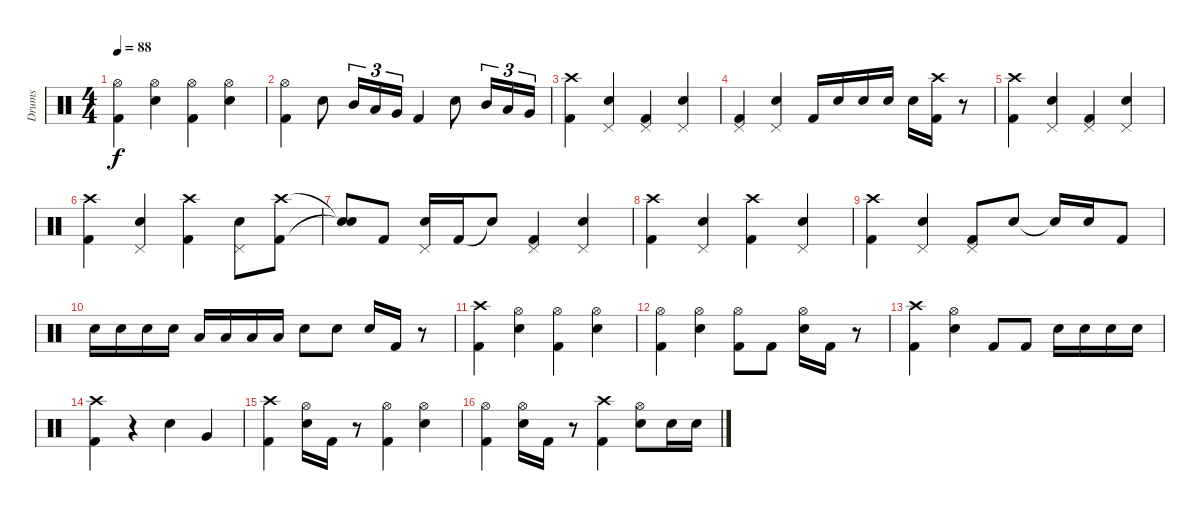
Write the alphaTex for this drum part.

\track ("Drums" "Drums") {instrument percussion}
\staff {score}
\articulation defaults
\ts (4 4)
\tempo 88
\clef neutral
\ks c
("Hi-Hat (open)" "Kick (hit) 2").4{dy f} ("Hi-Hat (open)" "Electric Snare (hit)").4 ("Hi-Hat (open)" "Kick (hit) 2").4 ("Hi-Hat (open)" "Electric Snare (hit)").4 |
("Hi-Hat (open)" "Kick (hit) 2").4 "Electric Snare (hit)".8 "Mid Tom (hit)".16{tu (3 2)} "Low Tom (hit)".16{tu (3 2)} "Very Low Tom (hit)".16{tu (3 2)} "Kick (hit) 2".4 "Electric Snare (hit)".8 "Mid Tom (hit)".16{tu (3 2)} "Low Tom (hit)".16{tu (3 2)} "Very Low Tom (hit)".16{tu (3 2)} |
("Crash high (hit)" "Kick (hit) 2").4 ("Pedal Hi-Hat (hit)" "Electric Snare (hit)").4 ("Pedal Hi-Hat (hit)" "Kick (hit) 2").4 ("Pedal Hi-Hat (hit)" "Electric Snare (hit)").4 |
("Pedal Hi-Hat (hit)" "Kick (hit) 2").4 ("Pedal Hi-Hat (hit)" "Electric Snare (hit)").4 "Kick (hit) 2".16 "Electric Snare (hit)".16 "Electric Snare (hit)".16 "Electric Snare (hit)".16 "Electric Snare (hit)".16 ("Crash high (hit)" "Kick (hit) 2").16 r.8 |
("Crash high (hit)" "Kick (hit) 2").4 ("Pedal Hi-Hat (hit)" "Electric Snare (hit)").4 ("Pedal Hi-Hat (hit)" "Kick (hit) 2").4 ("Pedal Hi-Hat (hit)" "Electric Snare (hit)").4 |
("Crash high (hit)" "Kick (hit) 2").4 ("Pedal Hi-Hat (hit)" "Electric Snare (hit)").4 ("Crash high (hit)" "Kick (hit) 2").4 ("Pedal Hi-Hat (hit)" "Electric Snare (hit)").8 ("Crash high (hit)" "Kick (hit) 2").8 |
("Snare (hit)"{t} "Snare (hit)"{t}).8 "Kick (hit) 2".8 ("Pedal Hi-Hat (hit)" "Electric Snare (hit)").16 "Kick (hit) 2".16 "Snare (hit)"{t}.8 ("Pedal Hi-Hat (hit)" "Kick (hit) 2").4 ("Pedal Hi-Hat (hit)" "Electric Snare (hit)").4 |
("Crash high (hit)" "Kick (hit) 2").4 ("Pedal Hi-Hat (hit)" "Electric Snare (hit)").4 ("Crash high (hit)" "Kick (hit) 2").4 ("Pedal Hi-Hat (hit)" "Electric Snare (hit)").4 |
("Crash high (hit)" "Kick (hit) 2").4 ("Pedal Hi-Hat (hit)" "Electric Snare (hit)").4 ("Pedal Hi-Hat (hit)" "Kick (hit) 2").8 "Electric Snare (hit)".8 "Snare (hit)"{t}.16 "Electric Snare (hit)".16 "Kick (hit) 2".8 |
"Electric Snare (hit)".16 "Electric Snare (hit)".16 "Electric Snare (hit)".16 "Electric Snare (hit)".16 "Low Tom (hit)".16 "Low Tom (hit)".16 "Low Tom (hit)".16 "Low Tom (hit)".16 "Electric Snare (hit)".8 "Electric Snare (hit)".8 "Electric Snare (hit)".16 "Kick (hit) 2".16 r.8 |
("Crash high (hit)" "Kick (hit) 2").4 ("Hi-Hat (open)" "Electric Snare (hit)").4 ("Hi-Hat (open)" "Kick (hit) 2").4 ("Hi-Hat (open)" "Electric Snare (hit)").4 |
("Hi-Hat (open)" "Kick (hit) 2").4 ("Hi-Hat (open)" "Electric Snare (hit)").4 ("Hi-Hat (open)" "Kick (hit) 2").8 "Kick (hit) 2".8 ("Hi-Hat (open)" "Electric Snare (hit)").16 "Kick (hit) 2".16 r.8 |
("Crash high (hit)" "Kick (hit) 2").4 ("Hi-Hat (open)" "Electric Snare (hit)").4 "Kick (hit) 2".8 "Kick (hit) 2".8 "Electric Snare (hit)".16 "Electric Snare (hit)".16 "Electric Snare (hit)".16 "Electric Snare (hit)".16 |
("Crash high (hit)" "Kick (hit) 2").4 r.4 "Electric Snare (hit)".4 "Very Low Tom (hit)".4 |
("Crash high (hit)" "Kick (hit) 2").4 ("Hi-Hat (open)" "Electric Snare (hit)").16 "Kick (hit) 2".16 r.8 ("Hi-Hat (open)" "Kick (hit) 2").4 ("Hi-Hat (open)" "Electric Snare (hit)").4 |
("Hi-Hat (open)" "Kick (hit) 2").4 ("Hi-Hat (open)" "Electric Snare (hit)").16 "Kick (hit) 2".16 r.8 ("Crash high (hit)" "Kick (hit) 2").4 ("Hi-Hat (open)" "Electric Snare (hit)").8 "Electric Snare (hit)".16 "Electric Snare (hit)".16
